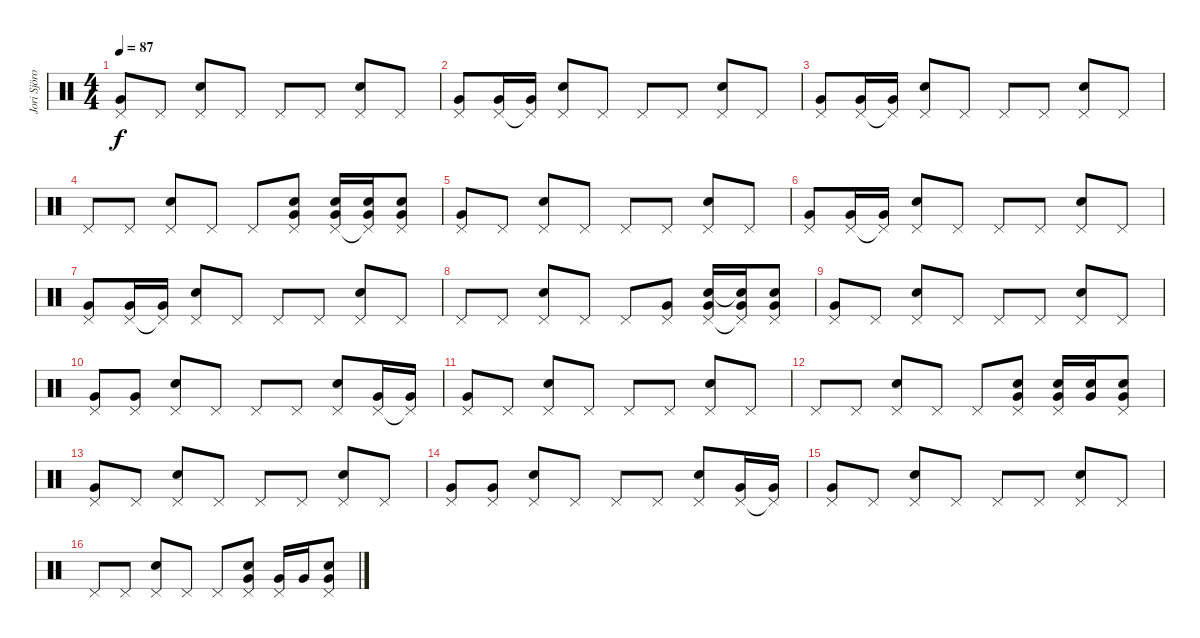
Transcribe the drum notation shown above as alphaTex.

\track ("Jori Sjöroos" "Jori Sjöro") {instrument percussion}
\staff {score}
\articulation defaults
\ts (4 4)
\tempo 87
\clef neutral
\ks c
("Pedal Hi-Hat (hit)" "Very Low Tom (hit)").8{dy f} "Pedal Hi-Hat (hit)".8 ("Snare (hit) 2" "Pedal Hi-Hat (hit)").8 "Pedal Hi-Hat (hit)".8 "Pedal Hi-Hat (hit)".8 "Pedal Hi-Hat (hit)".8 ("Snare (hit) 2" "Pedal Hi-Hat (hit)").8 "Pedal Hi-Hat (hit)".8 |
("Pedal Hi-Hat (hit)" "Very Low Tom (hit)").8 ("Pedal Hi-Hat (hit)" "Very Low Tom (hit)").16 ("Pedal Hi-Hat (hit)"{t} "Very Low Tom (hit)").16 ("Snare (hit) 2" "Pedal Hi-Hat (hit)").8 "Pedal Hi-Hat (hit)".8 "Pedal Hi-Hat (hit)".8 "Pedal Hi-Hat (hit)".8 ("Snare (hit) 2" "Pedal Hi-Hat (hit)").8 "Pedal Hi-Hat (hit)".8 |
("Pedal Hi-Hat (hit)" "Very Low Tom (hit)").8 ("Pedal Hi-Hat (hit)" "Very Low Tom (hit)").16 ("Pedal Hi-Hat (hit)"{t} "Very Low Tom (hit)").16 ("Snare (hit) 2" "Pedal Hi-Hat (hit)").8 "Pedal Hi-Hat (hit)".8 "Pedal Hi-Hat (hit)".8 "Pedal Hi-Hat (hit)".8 ("Snare (hit) 2" "Pedal Hi-Hat (hit)").8 "Pedal Hi-Hat (hit)".8 |
"Pedal Hi-Hat (hit)".8 "Pedal Hi-Hat (hit)".8 ("Snare (hit) 2" "Pedal Hi-Hat (hit)").8 "Pedal Hi-Hat (hit)".8 "Pedal Hi-Hat (hit)".8 ("Snare (hit) 2" "Pedal Hi-Hat (hit)" "Very Low Tom (hit)").8 ("Snare (hit) 2" "Pedal Hi-Hat (hit)" "Very Low Tom (hit)").16 ("Snare (hit) 2" "Pedal Hi-Hat (hit)"{t} "Very Low Tom (hit)").16 ("Snare (hit) 2" "Pedal Hi-Hat (hit)" "Very Low Tom (hit)").8 |
("Pedal Hi-Hat (hit)" "Very Low Tom (hit)").8 "Pedal Hi-Hat (hit)".8 ("Snare (hit) 2" "Pedal Hi-Hat (hit)").8 "Pedal Hi-Hat (hit)".8 "Pedal Hi-Hat (hit)".8 "Pedal Hi-Hat (hit)".8 ("Snare (hit) 2" "Pedal Hi-Hat (hit)").8 "Pedal Hi-Hat (hit)".8 |
("Pedal Hi-Hat (hit)" "Very Low Tom (hit)").8 ("Pedal Hi-Hat (hit)" "Very Low Tom (hit)").16 ("Pedal Hi-Hat (hit)"{t} "Very Low Tom (hit)").16 ("Snare (hit) 2" "Pedal Hi-Hat (hit)").8 "Pedal Hi-Hat (hit)".8 "Pedal Hi-Hat (hit)".8 "Pedal Hi-Hat (hit)".8 ("Snare (hit) 2" "Pedal Hi-Hat (hit)").8 "Pedal Hi-Hat (hit)".8 |
("Pedal Hi-Hat (hit)" "Very Low Tom (hit)").8 ("Pedal Hi-Hat (hit)" "Very Low Tom (hit)").16 ("Pedal Hi-Hat (hit)"{t} "Very Low Tom (hit)").16 ("Snare (hit) 2" "Pedal Hi-Hat (hit)").8 "Pedal Hi-Hat (hit)".8 "Pedal Hi-Hat (hit)".8 "Pedal Hi-Hat (hit)".8 ("Snare (hit) 2" "Pedal Hi-Hat (hit)").8 "Pedal Hi-Hat (hit)".8 |
"Pedal Hi-Hat (hit)".8 "Pedal Hi-Hat (hit)".8 ("Snare (hit) 2" "Pedal Hi-Hat (hit)").8 "Pedal Hi-Hat (hit)".8 "Pedal Hi-Hat (hit)".8 ("Pedal Hi-Hat (hit)" "Very Low Tom (hit)").8 ("Snare (hit) 2" "Pedal Hi-Hat (hit)" "Very Low Tom (hit)").16 ("Snare (hit) 2"{t} "Pedal Hi-Hat (hit)"{t} "Very Low Tom (hit)").16 ("Snare (hit) 2" "Pedal Hi-Hat (hit)" "Very Low Tom (hit)").8 |
("Pedal Hi-Hat (hit)" "Very Low Tom (hit)").8 "Pedal Hi-Hat (hit)".8 ("Snare (hit) 2" "Pedal Hi-Hat (hit)").8 "Pedal Hi-Hat (hit)".8 "Pedal Hi-Hat (hit)".8 "Pedal Hi-Hat (hit)".8 ("Snare (hit) 2" "Pedal Hi-Hat (hit)").8 "Pedal Hi-Hat (hit)".8 |
("Pedal Hi-Hat (hit)" "Very Low Tom (hit)").8 ("Pedal Hi-Hat (hit)" "Very Low Tom (hit)").8 ("Snare (hit) 2" "Pedal Hi-Hat (hit)").8 "Pedal Hi-Hat (hit)".8 "Pedal Hi-Hat (hit)".8 "Pedal Hi-Hat (hit)".8 ("Snare (hit) 2" "Pedal Hi-Hat (hit)").8 ("Pedal Hi-Hat (hit)" "Very Low Tom (hit)").16 ("Pedal Hi-Hat (hit)"{t} "Very Low Tom (hit)").16 |
("Pedal Hi-Hat (hit)" "Very Low Tom (hit)").8 "Pedal Hi-Hat (hit)".8 ("Snare (hit) 2" "Pedal Hi-Hat (hit)").8 "Pedal Hi-Hat (hit)".8 "Pedal Hi-Hat (hit)".8 "Pedal Hi-Hat (hit)".8 ("Snare (hit) 2" "Pedal Hi-Hat (hit)").8 "Pedal Hi-Hat (hit)".8 |
"Pedal Hi-Hat (hit)".8 "Pedal Hi-Hat (hit)".8 ("Snare (hit) 2" "Pedal Hi-Hat (hit)").8 "Pedal Hi-Hat (hit)".8 "Pedal Hi-Hat (hit)".8 ("Snare (hit) 2" "Pedal Hi-Hat (hit)" "Very Low Tom (hit)").8 ("Snare (hit) 2" "Pedal Hi-Hat (hit)" "Very Low Tom (hit)").16 ("Snare (hit) 2" "Very Low Tom (hit)").16 ("Snare (hit) 2" "Pedal Hi-Hat (hit)" "Very Low Tom (hit)").8 |
("Pedal Hi-Hat (hit)" "Very Low Tom (hit)").8 "Pedal Hi-Hat (hit)".8 ("Snare (hit) 2" "Pedal Hi-Hat (hit)").8 "Pedal Hi-Hat (hit)".8 "Pedal Hi-Hat (hit)".8 "Pedal Hi-Hat (hit)".8 ("Snare (hit) 2" "Pedal Hi-Hat (hit)").8 "Pedal Hi-Hat (hit)".8 |
("Pedal Hi-Hat (hit)" "Very Low Tom (hit)").8 ("Pedal Hi-Hat (hit)" "Very Low Tom (hit)").8 ("Snare (hit) 2" "Pedal Hi-Hat (hit)").8 "Pedal Hi-Hat (hit)".8 "Pedal Hi-Hat (hit)".8 "Pedal Hi-Hat (hit)".8 ("Snare (hit) 2" "Pedal Hi-Hat (hit)").8 ("Pedal Hi-Hat (hit)" "Very Low Tom (hit)").16 ("Pedal Hi-Hat (hit)"{t} "Very Low Tom (hit)").16 |
("Pedal Hi-Hat (hit)" "Very Low Tom (hit)").8 "Pedal Hi-Hat (hit)".8 ("Snare (hit) 2" "Pedal Hi-Hat (hit)").8 "Pedal Hi-Hat (hit)".8 "Pedal Hi-Hat (hit)".8 "Pedal Hi-Hat (hit)".8 ("Snare (hit) 2" "Pedal Hi-Hat (hit)").8 "Pedal Hi-Hat (hit)".8 |
"Pedal Hi-Hat (hit)".8 "Pedal Hi-Hat (hit)".8 ("Snare (hit) 2" "Pedal Hi-Hat (hit)").8 "Pedal Hi-Hat (hit)".8 "Pedal Hi-Hat (hit)".8 ("Snare (hit) 2" "Pedal Hi-Hat (hit)" "Very Low Tom (hit)").8 ("Pedal Hi-Hat (hit)" "Very Low Tom (hit)").16 "Very Low Tom (hit)".16 ("Snare (hit) 2" "Pedal Hi-Hat (hit)" "Very Low Tom (hit)").8
